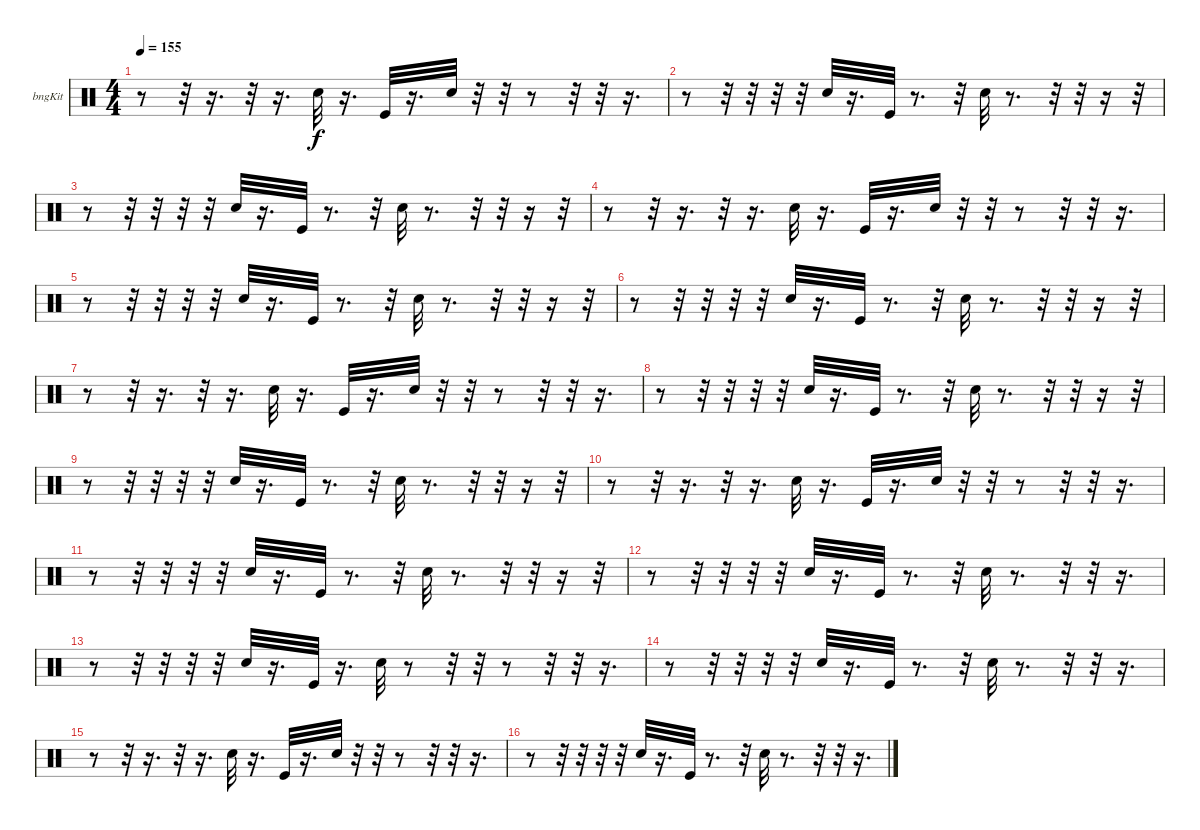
\bracketExtendMode groupsimilarinstruments
\firstSystemTrackNameOrientation horizontal
\otherSystemsTrackNameOrientation horizontal
\track ("Е. Кулаков" "bngKit") {instrument percussion}
\staff {score}
\articulation defaults
\ts (4 4)
\tempo 155
\clef neutral
\ks c
r.8{dy f} r.32 r.16{d} r.32 r.16{d} "Snare (hit) 2".32 r.16{d} "Kick (hit)".32 r.16{d} "Snare (hit) 2".32 r.32 r.32 r.8 r.32 r.32 r.16{d} |
r.8 r.32 r.32 r.32 r.32 "Snare (hit) 2".32 r.16{d} "Kick (hit)".32 r.8{d} r.32 "Snare (hit) 2".32 r.8{d} r.32 r.32 r.16 r.32 |
r.8 r.32 r.32 r.32 r.32 "Snare (hit) 2".32 r.16{d} "Kick (hit)".32 r.8{d} r.32 "Snare (hit) 2".32 r.8{d} r.32 r.32 r.16 r.32 |
r.8 r.32 r.16{d} r.32 r.16{d} "Snare (hit) 2".32 r.16{d} "Kick (hit)".32 r.16{d} "Snare (hit) 2".32 r.32 r.32 r.8 r.32 r.32 r.16{d} |
r.8 r.32 r.32 r.32 r.32 "Snare (hit) 2".32 r.16{d} "Kick (hit)".32 r.8{d} r.32 "Snare (hit) 2".32 r.8{d} r.32 r.32 r.16 r.32 |
r.8 r.32 r.32 r.32 r.32 "Snare (hit) 2".32 r.16{d} "Kick (hit)".32 r.8{d} r.32 "Snare (hit) 2".32 r.8{d} r.32 r.32 r.16 r.32 |
r.8 r.32 r.16{d} r.32 r.16{d} "Snare (hit) 2".32 r.16{d} "Kick (hit)".32 r.16{d} "Snare (hit) 2".32 r.32 r.32 r.8 r.32 r.32 r.16{d} |
r.8 r.32 r.32 r.32 r.32 "Snare (hit) 2".32 r.16{d} "Kick (hit)".32 r.8{d} r.32 "Snare (hit) 2".32 r.8{d} r.32 r.32 r.16 r.32 |
r.8 r.32 r.32 r.32 r.32 "Snare (hit) 2".32 r.16{d} "Kick (hit)".32 r.8{d} r.32 "Snare (hit) 2".32 r.8{d} r.32 r.32 r.16 r.32 |
r.8 r.32 r.16{d} r.32 r.16{d} "Snare (hit) 2".32 r.16{d} "Kick (hit)".32 r.16{d} "Snare (hit) 2".32 r.32 r.32 r.8 r.32 r.32 r.16{d} |
r.8 r.32 r.32 r.32 r.32 "Snare (hit) 2".32 r.16{d} "Kick (hit)".32 r.8{d} r.32 "Snare (hit) 2".32 r.8{d} r.32 r.32 r.16 r.32 |
r.8 r.32 r.32 r.32 r.32 "Snare (hit) 2".32 r.16{d} "Kick (hit)".32 r.8{d} r.32 "Snare (hit) 2".32 r.8{d} r.32 r.32 r.16{d} |
r.8 r.32 r.32 r.32 r.32 "Snare (hit) 2".32 r.16{d} "Kick (hit)".32 r.16{d} "Snare (hit) 2".32 r.8 r.32 r.32 r.8 r.32 r.32 r.16{d} |
r.8 r.32 r.32 r.32 r.32 "Snare (hit) 2".32 r.16{d} "Kick (hit)".32 r.8{d} r.32 "Snare (hit) 2".32 r.8{d} r.32 r.32 r.16{d} |
r.8 r.32 r.16{d} r.32 r.16{d} "Snare (hit) 2".32 r.16{d} "Kick (hit)".32 r.16{d} "Snare (hit) 2".32 r.32 r.32 r.8 r.32 r.32 r.16{d} |
r.8 r.32 r.32 r.32 r.32 "Snare (hit) 2".32 r.16{d} "Kick (hit)".32 r.8{d} r.32 "Snare (hit) 2".32 r.8{d} r.32 r.32 r.16{d}
